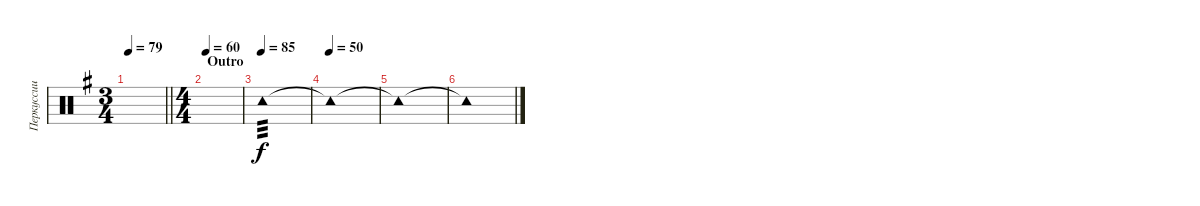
\track ("Перкуссии" "Перкуссии") {instrument percussion}
\staff {score}
\articulation defaults
\ts (3 4)
\tempo 79
\clef neutral
\barLineRight lightlight
\ks eminor
|
\ts (4 4)
\section ("" "Outro")
\tempo 60
|
\tempo (85)
"Tambourine (hit)".1{tp 3} |
\tempo (50)
"Tambourine (hit)"{t}.1{volume 0} |
"Tambourine (hit)"{t}.1 |
"Tambourine (hit)"{t}.1
